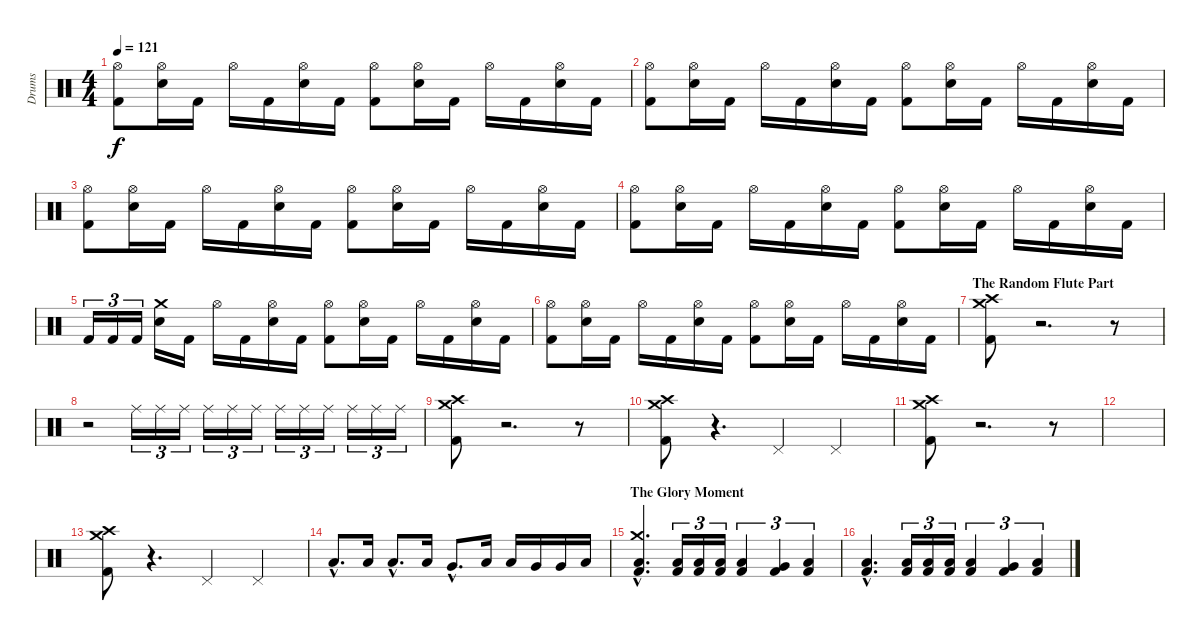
\track ("Drums" "Drums") {instrument percussion}
\staff {score}
\articulation defaults
\ts (4 4)
\tempo 121
\clef neutral
\ks c
("Hi-Hat (open)" "Kick (hit) 2").8{dy f} ("Hi-Hat (open)" "Electric Snare (hit)").16 "Kick (hit) 2".16 "Hi-Hat (open)".16 "Kick (hit) 2".16 ("Hi-Hat (open)" "Electric Snare (hit)").16 "Kick (hit) 2".16 ("Hi-Hat (open)" "Kick (hit) 2").8 ("Hi-Hat (open)" "Electric Snare (hit)").16 "Kick (hit) 2".16 "Hi-Hat (open)".16 "Kick (hit) 2".16 ("Hi-Hat (open)" "Electric Snare (hit)").16 "Kick (hit) 2".16 |
("Hi-Hat (open)" "Kick (hit) 2").8 ("Hi-Hat (open)" "Electric Snare (hit)").16 "Kick (hit) 2".16 "Hi-Hat (open)".16 "Kick (hit) 2".16 ("Hi-Hat (open)" "Electric Snare (hit)").16 "Kick (hit) 2".16 ("Hi-Hat (open)" "Kick (hit) 2").8 ("Hi-Hat (open)" "Electric Snare (hit)").16 "Kick (hit) 2".16 "Hi-Hat (open)".16 "Kick (hit) 2".16 ("Hi-Hat (open)" "Electric Snare (hit)").16 "Kick (hit) 2".16 |
("Hi-Hat (open)" "Kick (hit) 2").8 ("Hi-Hat (open)" "Electric Snare (hit)").16 "Kick (hit) 2".16 "Hi-Hat (open)".16 "Kick (hit) 2".16 ("Hi-Hat (open)" "Electric Snare (hit)").16 "Kick (hit) 2".16 ("Hi-Hat (open)" "Kick (hit) 2").8 ("Hi-Hat (open)" "Electric Snare (hit)").16 "Kick (hit) 2".16 "Hi-Hat (open)".16 "Kick (hit) 2".16 ("Hi-Hat (open)" "Electric Snare (hit)").16 "Kick (hit) 2".16 |
("Hi-Hat (open)" "Kick (hit) 2").8 ("Hi-Hat (open)" "Electric Snare (hit)").16 "Kick (hit) 2".16 "Hi-Hat (open)".16 "Kick (hit) 2".16 ("Hi-Hat (open)" "Electric Snare (hit)").16 "Kick (hit) 2".16 ("Hi-Hat (open)" "Kick (hit) 2").8 ("Hi-Hat (open)" "Electric Snare (hit)").16 "Kick (hit) 2".16 "Hi-Hat (open)".16 "Kick (hit) 2".16 ("Hi-Hat (open)" "Electric Snare (hit)").16 "Kick (hit) 2".16 |
"Kick (hit) 2".16{tu (3 2)} "Kick (hit) 2".16{tu (3 2)} "Kick (hit) 2".16{tu (3 2)} ("Crash medium (hit)" "Electric Snare (hit)").16 "Kick (hit) 2".16 "Hi-Hat (open)".16 "Kick (hit) 2".16 ("Hi-Hat (open)" "Electric Snare (hit)").16 "Kick (hit) 2".16 ("Hi-Hat (open)" "Kick (hit) 2").8 ("Hi-Hat (open)" "Electric Snare (hit)").16 "Kick (hit) 2".16 "Hi-Hat (open)".16 "Kick (hit) 2".16 ("Hi-Hat (open)" "Electric Snare (hit)").16 "Kick (hit) 2".16 |
("Hi-Hat (open)" "Kick (hit) 2").8 ("Hi-Hat (open)" "Electric Snare (hit)").16 "Kick (hit) 2".16 "Hi-Hat (open)".16 "Kick (hit) 2".16 ("Hi-Hat (open)" "Electric Snare (hit)").16 "Kick (hit) 2".16 ("Hi-Hat (open)" "Kick (hit) 2").8 ("Hi-Hat (open)" "Electric Snare (hit)").16 "Kick (hit) 2".16 "Hi-Hat (open)".16 "Kick (hit) 2".16 ("Hi-Hat (open)" "Electric Snare (hit)").16 "Kick (hit) 2".16 |
\section ("" "The Random Flute Part")
("Crash high (hit)" "Crash medium (hit)" "Kick (hit) 2").8 r.2{d volume 0} r.8{volume 13} |
r.2 "Ride (middle)".16{tu (3 2)} "Ride (middle)".16{tu (3 2)} "Ride (middle)".16{tu (3 2)} "Ride (middle)".16{tu (3 2)} "Ride (middle)".16{tu (3 2)} "Ride (middle)".16{tu (3 2)} "Ride (middle)".16{tu (3 2)} "Ride (middle)".16{tu (3 2)} "Ride (middle)".16{tu (3 2)} "Ride (middle)".16{tu (3 2)} "Ride (middle)".16{tu (3 2)} "Ride (middle)".16{tu (3 2)} |
("Crash high (hit)" "Crash medium (hit)" "Kick (hit) 2").8 r.2{d volume 0} r.8{volume 13} |
("Crash high (hit)" "Crash medium (hit)" "Kick (hit) 2").8 r.4{d volume 0} "Pedal Hi-Hat (hit)".4{volume 13} "Pedal Hi-Hat (hit)".4 |
("Crash high (hit)" "Crash medium (hit)" "Kick (hit) 2").8 r.2{d volume 0} r.8{volume 13} |
|
("Crash high (hit)" "Crash medium (hit)" "Kick (hit) 2").8 r.4{d volume 0} "Pedal Hi-Hat (hit)".4{volume 13} "Pedal Hi-Hat (hit)".4 |
"Low Tom (hit)"{hac}.8{d} "Low Tom (hit)".16 "Low Tom (hit)"{hac}.8{d} "Low Tom (hit)".16 "Very Low Tom (hit)"{hac}.8{d} "Low Tom (hit)".16 "Low Tom (hit)".16 "Very Low Tom (hit)".16 "Very Low Tom (hit)".16 "Low Floor Tom (hit)".16 |
\section ("" "The Glory Moment")
("Crash medium (hit)"{hac} "Low Floor Tom (hit)"{hac} "Kick (hit) 2"{hac}).4{d} ("Low Floor Tom (hit)" "Kick (hit) 2").16{tu (3 2)} ("Low Floor Tom (hit)" "Kick (hit) 2").16{tu (3 2)} ("Low Floor Tom (hit)" "Kick (hit) 2").16{tu (3 2)} ("Low Tom (hit)" "Kick (hit) 2").4{tu (3 2)} ("Very Low Tom (hit)" "Kick (hit) 2").4{tu (3 2)} ("Low Floor Tom (hit)" "Kick (hit) 2").4{tu (3 2)} |
("Low Floor Tom (hit)"{hac} "Kick (hit) 2"{hac}).4{d} ("Low Floor Tom (hit)" "Kick (hit) 2").16{tu (3 2)} ("Low Floor Tom (hit)" "Kick (hit) 2").16{tu (3 2)} ("Low Floor Tom (hit)" "Kick (hit) 2").16{tu (3 2)} ("Low Tom (hit)" "Kick (hit) 2").4{tu (3 2)} ("Very Low Tom (hit)" "Kick (hit) 2").4{tu (3 2)} ("Low Floor Tom (hit)" "Kick (hit) 2").4{tu (3 2)}
